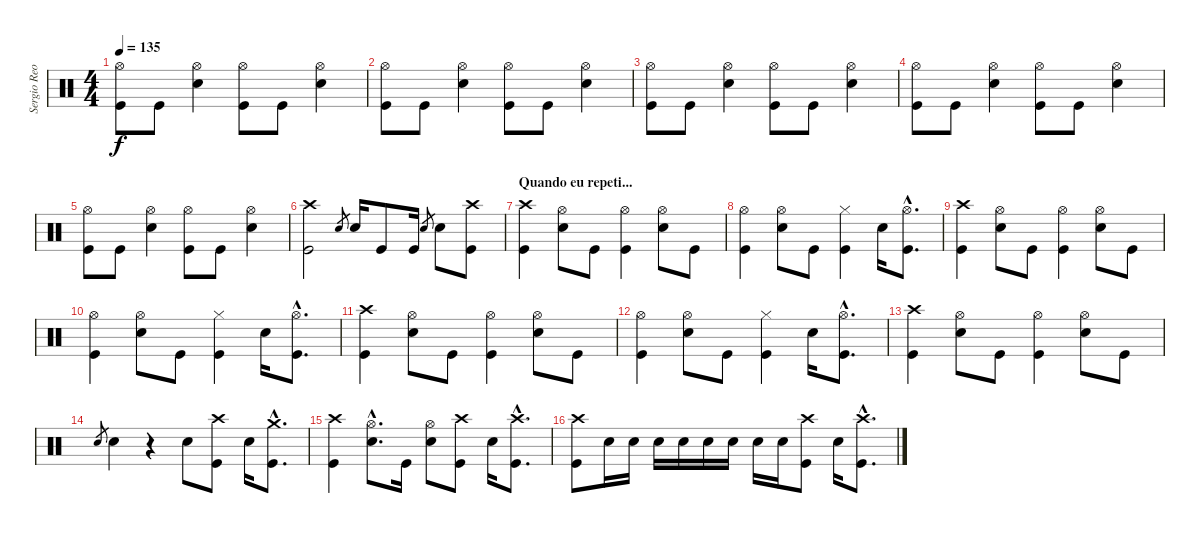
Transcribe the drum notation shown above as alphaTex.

\track ("Sergio Reoli" "Sergio Reo") {instrument percussion}
\staff {score}
\articulation defaults
\ts (4 4)
\tempo 135
\clef neutral
\ks c
("Hi-Hat (open)" "Kick (hit)").8{dy f} "Kick (hit)".8 ("Hi-Hat (open)" "Electric Snare (hit)").4 ("Hi-Hat (open)" "Kick (hit)").8 "Kick (hit)".8 ("Hi-Hat (open)" "Electric Snare (hit)").4 |
("Hi-Hat (open)" "Kick (hit)").8 "Kick (hit)".8 ("Hi-Hat (open)" "Electric Snare (hit)").4 ("Hi-Hat (open)" "Kick (hit)").8 "Kick (hit)".8 ("Hi-Hat (open)" "Electric Snare (hit)").4 |
("Hi-Hat (open)" "Kick (hit)").8 "Kick (hit)".8 ("Hi-Hat (open)" "Electric Snare (hit)").4 ("Hi-Hat (open)" "Kick (hit)").8 "Kick (hit)".8 ("Hi-Hat (open)" "Electric Snare (hit)").4 |
("Hi-Hat (open)" "Kick (hit)").8 "Kick (hit)".8 ("Hi-Hat (open)" "Electric Snare (hit)").4 ("Hi-Hat (open)" "Kick (hit)").8 "Kick (hit)".8 ("Hi-Hat (open)" "Electric Snare (hit)").4 |
("Hi-Hat (open)" "Kick (hit)").8 "Kick (hit)".8 ("Hi-Hat (open)" "Electric Snare (hit)").4 ("Hi-Hat (open)" "Kick (hit)").8 "Kick (hit)".8 ("Hi-Hat (open)" "Electric Snare (hit)").4 |
("Crash high (hit)" "Kick (hit)").2 "Electric Snare (hit)".8{gr} "Electric Snare (hit)".16 "Kick (hit)".8 "Kick (hit)".16 "Electric Snare (hit)".8{gr} "Electric Snare (hit)".8 ("Crash high (hit)" "Kick (hit)").8 |
\section ("" "Quando eu repeti...")
("Crash high (hit)" "Kick (hit)").4 ("Hi-Hat (open)" "Electric Snare (hit)").8 "Kick (hit)".8 ("Hi-Hat (open)" "Kick (hit)").4 ("Hi-Hat (open)" "Electric Snare (hit)").8 "Kick (hit)".8 |
("Hi-Hat (open)" "Kick (hit)").4 ("Hi-Hat (open)" "Electric Snare (hit)").8 "Kick (hit)".8 ("Hi-Hat (closed)" "Kick (hit)").4 "Electric Snare (hit)".16 ("Hi-Hat (open)"{hac} "Kick (hit)"{hac}).8{d} |
("Crash high (hit)" "Kick (hit)").4 ("Hi-Hat (open)" "Electric Snare (hit)").8 "Kick (hit)".8 ("Hi-Hat (open)" "Kick (hit)").4 ("Hi-Hat (open)" "Electric Snare (hit)").8 "Kick (hit)".8 |
("Hi-Hat (open)" "Kick (hit)").4 ("Hi-Hat (open)" "Electric Snare (hit)").8 "Kick (hit)".8 ("Hi-Hat (closed)" "Kick (hit)").4 "Electric Snare (hit)".16 ("Hi-Hat (open)"{hac} "Kick (hit)"{hac}).8{d} |
("Crash high (hit)" "Kick (hit)").4 ("Hi-Hat (open)" "Electric Snare (hit)").8 "Kick (hit)".8 ("Hi-Hat (open)" "Kick (hit)").4 ("Hi-Hat (open)" "Electric Snare (hit)").8 "Kick (hit)".8 |
("Hi-Hat (open)" "Kick (hit)").4 ("Hi-Hat (open)" "Electric Snare (hit)").8 "Kick (hit)".8 ("Hi-Hat (closed)" "Kick (hit)").4 "Electric Snare (hit)".16 ("Hi-Hat (open)"{hac} "Kick (hit)"{hac}).8{d} |
("Crash high (hit)" "Kick (hit)").4 ("Hi-Hat (open)" "Electric Snare (hit)").8 "Kick (hit)".8 ("Hi-Hat (open)" "Kick (hit)").4 ("Hi-Hat (open)" "Electric Snare (hit)").8 "Kick (hit)".8 |
"Electric Snare (hit)".8{gr} "Electric Snare (hit)".4 r.4 "Electric Snare (hit)".8 ("Crash high (hit)" "Kick (hit)").8 "Electric Snare (hit)".16 ("Crash medium (hit)"{hac} "Kick (hit)"{hac}).8{d} |
("Crash high (hit)" "Kick (hit)").4 ("Hi-Hat (open)"{hac} "Electric Snare (hit)"{hac}).8{d} "Kick (hit)".16 ("Hi-Hat (open)" "Electric Snare (hit)").8 ("Crash high (hit)" "Kick (hit)").8 "Electric Snare (hit)".16 ("Crash high (hit)"{hac} "Kick (hit)"{hac}).8{d} |
("Crash high (hit)" "Kick (hit)").8 "Electric Snare (hit)".16 "Electric Snare (hit)".16 "Electric Snare (hit)".16 "Electric Snare (hit)".16 "Electric Snare (hit)".16 "Electric Snare (hit)".16 "Electric Snare (hit)".16 "Electric Snare (hit)".16 ("Crash high (hit)" "Kick (hit)").8 "Electric Snare (hit)".16 ("Crash high (hit)"{hac} "Kick (hit)"{hac}).8{d}
